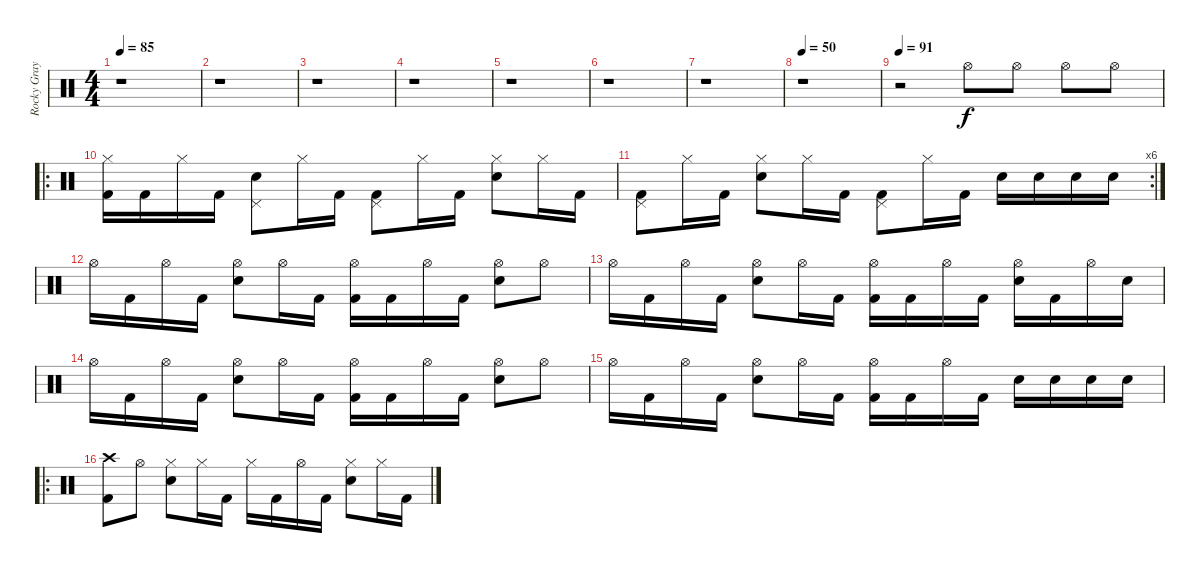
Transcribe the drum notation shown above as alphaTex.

\track ("Rocky Gray (Drums)" "Rocky Gray") {instrument percussion}
\staff {score}
\articulation defaults
\ts (4 4)
\tempo 85
\clef neutral
\ks c
r.1{dy f} |
r.1 |
r.1 |
r.1 |
r.1 |
r.1 |
r.1 |
\tempo 50
r.1 |
\tempo 91
r.2 "Hi-Hat (open)".8 "Hi-Hat (open)".8 "Hi-Hat (open)".8 "Hi-Hat (open)".8 |
\ro
("Hi-Hat (closed)" "Kick (hit) 2").16 "Kick (hit) 2".16 "Hi-Hat (closed)".16 "Kick (hit) 2".16 ("Pedal Hi-Hat (hit)" "Electric Snare (hit)").8 "Hi-Hat (closed)".16 "Kick (hit) 2".16 ("Pedal Hi-Hat (hit)" "Kick (hit) 2").8 "Hi-Hat (closed)".16 "Kick (hit) 2".16 ("Hi-Hat (closed)" "Electric Snare (hit)").8 "Hi-Hat (closed)".16 "Kick (hit) 2".16 |
\rc 6
("Pedal Hi-Hat (hit)" "Kick (hit) 2").8 "Hi-Hat (closed)".16 "Kick (hit) 2".16 ("Hi-Hat (closed)" "Electric Snare (hit)").8 "Hi-Hat (closed)".16 "Kick (hit) 2".16 ("Pedal Hi-Hat (hit)" "Kick (hit) 2").8 "Hi-Hat (closed)".16 "Kick (hit) 2".16 "Electric Snare (hit)".16 "Electric Snare (hit)".16 "Electric Snare (hit)".16 "Electric Snare (hit)".16 |
"Hi-Hat (open)".16 "Kick (hit) 2".16 "Hi-Hat (open)".16 "Kick (hit) 2".16 ("Hi-Hat (open)" "Electric Snare (hit)").8 "Hi-Hat (open)".16 "Kick (hit) 2".16 ("Hi-Hat (open)" "Kick (hit) 2").16 "Kick (hit) 2".16 "Hi-Hat (open)".16 "Kick (hit) 2".16 ("Hi-Hat (open)" "Electric Snare (hit)").8 "Hi-Hat (open)".8 |
"Hi-Hat (open)".16 "Kick (hit) 2".16 "Hi-Hat (open)".16 "Kick (hit) 2".16 ("Hi-Hat (open)" "Electric Snare (hit)").8 "Hi-Hat (open)".16 "Kick (hit) 2".16 ("Hi-Hat (open)" "Kick (hit) 2").16 "Kick (hit) 2".16 "Hi-Hat (open)".16 "Kick (hit) 2".16 ("Hi-Hat (open)" "Electric Snare (hit)").16 "Kick (hit) 2".16 "Hi-Hat (open)".16 "Electric Snare (hit)".16 |
"Hi-Hat (open)".16 "Kick (hit) 2".16 "Hi-Hat (open)".16 "Kick (hit) 2".16 ("Hi-Hat (open)" "Electric Snare (hit)").8 "Hi-Hat (open)".16 "Kick (hit) 2".16 ("Hi-Hat (open)" "Kick (hit) 2").16 "Kick (hit) 2".16 "Hi-Hat (open)".16 "Kick (hit) 2".16 ("Hi-Hat (open)" "Electric Snare (hit)").8 "Hi-Hat (open)".8 |
"Hi-Hat (open)".16 "Kick (hit) 2".16 "Hi-Hat (open)".16 "Kick (hit) 2".16 ("Hi-Hat (open)" "Electric Snare (hit)").8 "Hi-Hat (open)".16 "Kick (hit) 2".16 ("Hi-Hat (open)" "Kick (hit) 2").16 "Kick (hit) 2".16 "Hi-Hat (open)".16 "Kick (hit) 2".16 "Electric Snare (hit)".16 "Electric Snare (hit)".16 "Electric Snare (hit)".16 "Electric Snare (hit)".16 |
\ro
("Crash high (hit)" "Kick (hit) 2").8 "Hi-Hat (open)".8 ("Hi-Hat (closed)" "Electric Snare (hit)").8 "Hi-Hat (closed)".16 "Kick (hit) 2".16 "Hi-Hat (closed)".16 "Kick (hit) 2".16 "Hi-Hat (open)".16 "Kick (hit) 2".16 ("Hi-Hat (closed)" "Electric Snare (hit)").8 "Hi-Hat (closed)".16 "Kick (hit) 2".16
